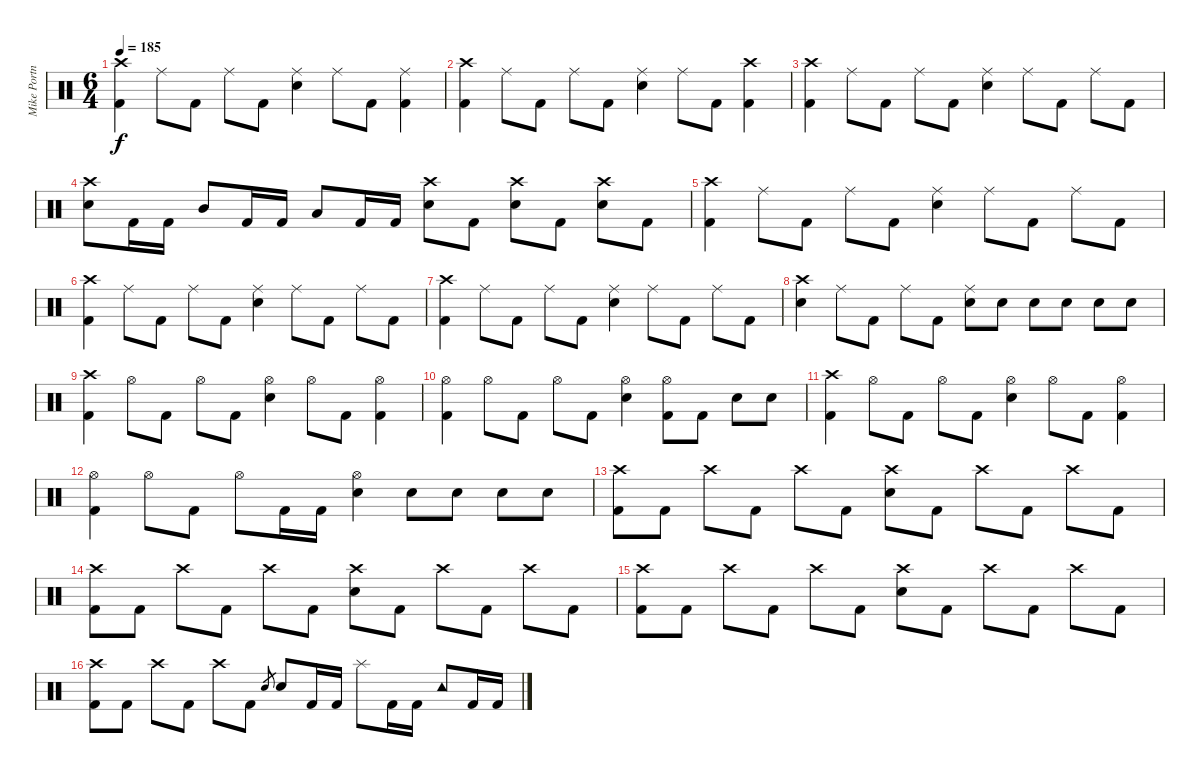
\track ("Mike Portnoy" "Mike Portn") {instrument percussion}
\staff {score}
\articulation defaults
\ts (6 4)
\tempo 185
\clef neutral
\ks c
("Crash high (hit)" "Kick (hit) 2").4{dy f} "Ride (middle)".8 "Kick (hit) 2".8 "Ride (middle)".8 "Kick (hit) 2".8 ("Snare (hit) 2" "Ride (middle)").4 "Ride (middle)".8 "Kick (hit) 2".8 ("Ride (middle)" "Kick (hit) 2").4 |
("Crash high (hit)" "Kick (hit) 2").4 "Ride (middle)".8 "Kick (hit) 2".8 "Ride (middle)".8 "Kick (hit) 2".8 ("Snare (hit) 2" "Ride (middle)").4 "Ride (middle)".8 "Kick (hit) 2".8 ("Crash high (hit)" "Kick (hit) 2").4 |
("Crash high (hit)" "Kick (hit) 2").4 "Ride (middle)".8 "Kick (hit) 2".8 "Ride (middle)".8 "Kick (hit) 2".8 ("Snare (hit) 2" "Ride (middle)").4 "Ride (middle)".8 "Kick (hit) 2".8 "Ride (middle)".8 "Kick (hit) 2".8 |
("Snare (hit) 2" "Crash high (hit)").8 "Kick (hit) 2".16 "Kick (hit) 2".16 "Mid Tom (hit)".8 "Kick (hit) 2".16 "Kick (hit) 2".16 "Low Tom (hit)".8 "Kick (hit) 2".16 "Kick (hit) 2".16 ("Snare (hit) 2" "Crash high (hit)").8 "Kick (hit) 2".8 ("Snare (hit) 2" "Crash high (hit)").8 "Kick (hit) 2".8 ("Snare (hit) 2" "Crash high (hit)").8 "Kick (hit) 2".8 |
("Crash high (hit)" "Kick (hit) 2").4 "Ride (middle)".8 "Kick (hit) 2".8 "Ride (middle)".8 "Kick (hit) 2".8 ("Snare (hit) 2" "Ride (middle)").4 "Ride (middle)".8 "Kick (hit) 2".8 "Ride (middle)".8 "Kick (hit) 2".8 |
("Crash high (hit)" "Kick (hit) 2").4 "Ride (middle)".8 "Kick (hit) 2".8 "Ride (middle)".8 "Kick (hit) 2".8 ("Snare (hit) 2" "Ride (middle)").4 "Ride (middle)".8 "Kick (hit) 2".8 "Ride (middle)".8 "Kick (hit) 2".8 |
("Crash high (hit)" "Kick (hit) 2").4 "Ride (middle)".8 "Kick (hit) 2".8 "Ride (middle)".8 "Kick (hit) 2".8 ("Snare (hit) 2" "Ride (middle)").4 "Ride (middle)".8 "Kick (hit) 2".8 "Ride (middle)".8 "Kick (hit) 2".8 |
("Snare (hit) 2" "Crash high (hit)").4 "Ride (middle)".8 "Kick (hit) 2".8 "Ride (middle)".8 "Kick (hit) 2".8 ("Snare (hit) 2" "Ride (middle)").8 "Snare (hit) 2".8 "Snare (hit) 2".8 "Snare (hit) 2".8 "Snare (hit) 2".8 "Snare (hit) 2".8 |
("Crash high (hit)" "Kick (hit) 2").4 "Hi-Hat (open)".8 "Kick (hit) 2".8 "Hi-Hat (open)".8 "Kick (hit) 2".8 ("Snare (hit) 2" "Hi-Hat (open)").4 "Hi-Hat (open)".8 "Kick (hit) 2".8 ("Hi-Hat (open)" "Kick (hit) 2").4 |
("Hi-Hat (open)" "Kick (hit) 2").4 "Hi-Hat (open)".8 "Kick (hit) 2".8 "Hi-Hat (open)".8 "Kick (hit) 2".8 ("Snare (hit) 2" "Hi-Hat (open)").4 ("Hi-Hat (open)" "Kick (hit) 2").8 "Kick (hit) 2".8 "Snare (hit) 2".8 "Snare (hit) 2".8 |
("Crash high (hit)" "Kick (hit) 2").4 "Hi-Hat (open)".8 "Kick (hit) 2".8 "Hi-Hat (open)".8 "Kick (hit) 2".8 ("Snare (hit) 2" "Hi-Hat (open)").4 "Hi-Hat (open)".8 "Kick (hit) 2".8 ("Hi-Hat (open)" "Kick (hit) 2").4 |
("Hi-Hat (open)" "Kick (hit) 2").4 "Hi-Hat (open)".8 "Kick (hit) 2".8 "Hi-Hat (open)".8 "Kick (hit) 2".16 "Kick (hit) 2".16 ("Snare (hit) 2" "Hi-Hat (open)").4 "Snare (hit) 2".8 "Snare (hit) 2".8 "Snare (hit) 2".8 "Snare (hit) 2".8 |
("Crash high (hit)" "Kick (hit) 2").8 "Kick (hit) 2".8 "Crash high (hit)".8 "Kick (hit) 2".8 "Crash high (hit)".8 "Kick (hit) 2".8 ("Snare (hit) 2" "Crash high (hit)").8 "Kick (hit) 2".8 "Crash high (hit)".8 "Kick (hit) 2".8 "Crash high (hit)".8 "Kick (hit) 2".8 |
("Crash high (hit)" "Kick (hit) 2").8 "Kick (hit) 2".8 "Crash high (hit)".8 "Kick (hit) 2".8 "Crash high (hit)".8 "Kick (hit) 2".8 ("Snare (hit) 2" "Crash high (hit)").8 "Kick (hit) 2".8 "Crash high (hit)".8 "Kick (hit) 2".8 "Crash high (hit)".8 "Kick (hit) 2".8 |
("Crash high (hit)" "Kick (hit) 2").8 "Kick (hit) 2".8 "Crash high (hit)".8 "Kick (hit) 2".8 "Crash high (hit)".8 "Kick (hit) 2".8 ("Snare (hit) 2" "Crash high (hit)").8 "Kick (hit) 2".8 "Crash high (hit)".8 "Kick (hit) 2".8 "Crash high (hit)".8 "Kick (hit) 2".8 |
("Crash high (hit)" "Kick (hit) 2").8 "Kick (hit) 2".8 "Crash high (hit)".8 "Kick (hit) 2".8 "Crash high (hit)".8 "Kick (hit) 2".8 "Snare (hit) 2".8{gr} "Snare (hit) 2".8 "Kick (hit) 2".16 "Kick (hit) 2".16 "Splash (hit)".8 "Kick (hit) 2".16 "Kick (hit) 2".16 "Tambourine (hit)".8 "Kick (hit) 2".16 "Kick (hit) 2".16
